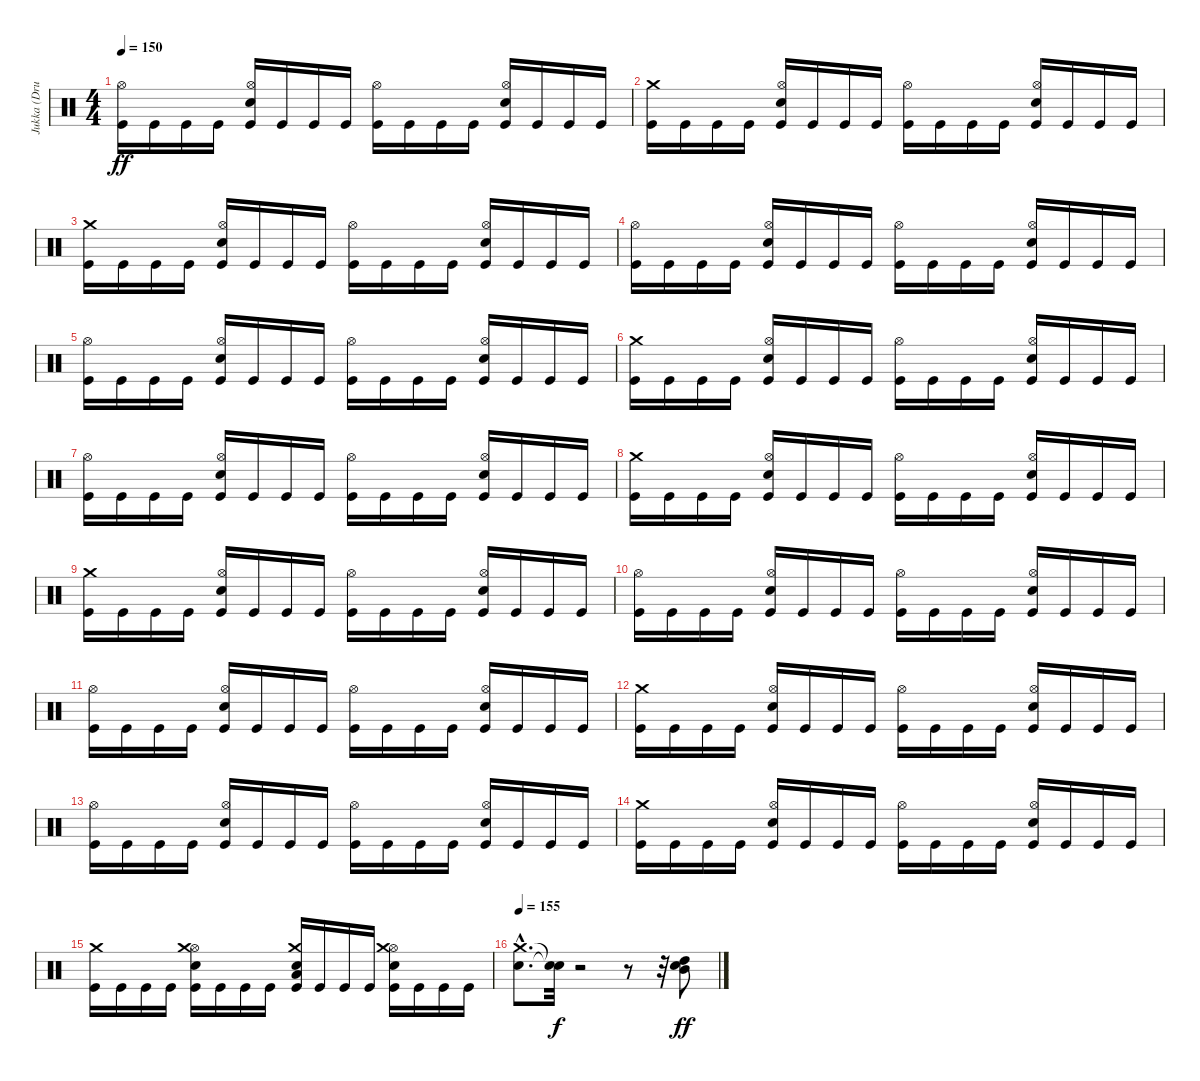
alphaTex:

\track ("Jukka (Drums)" "Jukka (Dru") {instrument percussion}
\staff {score}
\articulation defaults
\ts (4 4)
\tempo 150
\clef neutral
\ks c
("Kick (hit)" "Hi-Hat (open)").16{dy ff} "Kick (hit)".16 "Kick (hit)".16 "Kick (hit)".16 ("Kick (hit)" "Electric Snare (hit)" "Hi-Hat (open)").16 "Kick (hit)".16 "Kick (hit)".16 "Kick (hit)".16 ("Kick (hit)" "Hi-Hat (open)").16 "Kick (hit)".16 "Kick (hit)".16 "Kick (hit)".16 ("Kick (hit)" "Electric Snare (hit)" "Hi-Hat (open)").16 "Kick (hit)".16 "Kick (hit)".16 "Kick (hit)".16 |
("Kick (hit)" "Crash medium (hit)").16 "Kick (hit)".16 "Kick (hit)".16 "Kick (hit)".16 ("Kick (hit)" "Electric Snare (hit)" "Hi-Hat (open)").16 "Kick (hit)".16 "Kick (hit)".16 "Kick (hit)".16 ("Kick (hit)" "Hi-Hat (open)").16 "Kick (hit)".16 "Kick (hit)".16 "Kick (hit)".16 ("Kick (hit)" "Electric Snare (hit)" "Hi-Hat (open)").16 "Kick (hit)".16 "Kick (hit)".16 "Kick (hit)".16 |
("Kick (hit)" "Crash medium (hit)").16 "Kick (hit)".16 "Kick (hit)".16 "Kick (hit)".16 ("Kick (hit)" "Electric Snare (hit)" "Hi-Hat (open)").16 "Kick (hit)".16 "Kick (hit)".16 "Kick (hit)".16 ("Kick (hit)" "Hi-Hat (open)").16 "Kick (hit)".16 "Kick (hit)".16 "Kick (hit)".16 ("Kick (hit)" "Electric Snare (hit)" "Hi-Hat (open)").16 "Kick (hit)".16 "Kick (hit)".16 "Kick (hit)".16 |
("Kick (hit)" "Hi-Hat (open)").16 "Kick (hit)".16 "Kick (hit)".16 "Kick (hit)".16 ("Kick (hit)" "Electric Snare (hit)" "Hi-Hat (open)").16 "Kick (hit)".16 "Kick (hit)".16 "Kick (hit)".16 ("Kick (hit)" "Hi-Hat (open)").16 "Kick (hit)".16 "Kick (hit)".16 "Kick (hit)".16 ("Kick (hit)" "Electric Snare (hit)" "Hi-Hat (open)").16 "Kick (hit)".16 "Kick (hit)".16 "Kick (hit)".16 |
("Kick (hit)" "Hi-Hat (open)").16 "Kick (hit)".16 "Kick (hit)".16 "Kick (hit)".16 ("Kick (hit)" "Electric Snare (hit)" "Hi-Hat (open)").16 "Kick (hit)".16 "Kick (hit)".16 "Kick (hit)".16 ("Kick (hit)" "Hi-Hat (open)").16 "Kick (hit)".16 "Kick (hit)".16 "Kick (hit)".16 ("Kick (hit)" "Electric Snare (hit)" "Hi-Hat (open)").16 "Kick (hit)".16 "Kick (hit)".16 "Kick (hit)".16 |
("Kick (hit)" "Crash medium (hit)").16 "Kick (hit)".16 "Kick (hit)".16 "Kick (hit)".16 ("Kick (hit)" "Electric Snare (hit)" "Hi-Hat (open)").16 "Kick (hit)".16 "Kick (hit)".16 "Kick (hit)".16 ("Kick (hit)" "Hi-Hat (open)").16 "Kick (hit)".16 "Kick (hit)".16 "Kick (hit)".16 ("Kick (hit)" "Electric Snare (hit)" "Hi-Hat (open)").16 "Kick (hit)".16 "Kick (hit)".16 "Kick (hit)".16 |
("Kick (hit)" "Hi-Hat (open)").16 "Kick (hit)".16 "Kick (hit)".16 "Kick (hit)".16 ("Kick (hit)" "Electric Snare (hit)" "Hi-Hat (open)").16 "Kick (hit)".16 "Kick (hit)".16 "Kick (hit)".16 ("Kick (hit)" "Hi-Hat (open)").16 "Kick (hit)".16 "Kick (hit)".16 "Kick (hit)".16 ("Kick (hit)" "Electric Snare (hit)" "Hi-Hat (open)").16 "Kick (hit)".16 "Kick (hit)".16 "Kick (hit)".16 |
("Kick (hit)" "Crash medium (hit)").16 "Kick (hit)".16 "Kick (hit)".16 "Kick (hit)".16 ("Kick (hit)" "Electric Snare (hit)" "Hi-Hat (open)").16 "Kick (hit)".16 "Kick (hit)".16 "Kick (hit)".16 ("Kick (hit)" "Hi-Hat (open)").16 "Kick (hit)".16 "Kick (hit)".16 "Kick (hit)".16 ("Kick (hit)" "Electric Snare (hit)" "Hi-Hat (open)").16 "Kick (hit)".16 "Kick (hit)".16 "Kick (hit)".16 |
("Kick (hit)" "Crash medium (hit)").16 "Kick (hit)".16 "Kick (hit)".16 "Kick (hit)".16 ("Kick (hit)" "Electric Snare (hit)" "Hi-Hat (open)").16 "Kick (hit)".16 "Kick (hit)".16 "Kick (hit)".16 ("Kick (hit)" "Hi-Hat (open)").16 "Kick (hit)".16 "Kick (hit)".16 "Kick (hit)".16 ("Kick (hit)" "Electric Snare (hit)" "Hi-Hat (open)").16 "Kick (hit)".16 "Kick (hit)".16 "Kick (hit)".16 |
("Kick (hit)" "Hi-Hat (open)").16 "Kick (hit)".16 "Kick (hit)".16 "Kick (hit)".16 ("Kick (hit)" "Electric Snare (hit)" "Hi-Hat (open)").16 "Kick (hit)".16 "Kick (hit)".16 "Kick (hit)".16 ("Kick (hit)" "Hi-Hat (open)").16 "Kick (hit)".16 "Kick (hit)".16 "Kick (hit)".16 ("Kick (hit)" "Electric Snare (hit)" "Hi-Hat (open)").16 "Kick (hit)".16 "Kick (hit)".16 "Kick (hit)".16 |
("Kick (hit)" "Hi-Hat (open)").16 "Kick (hit)".16 "Kick (hit)".16 "Kick (hit)".16 ("Kick (hit)" "Electric Snare (hit)" "Hi-Hat (open)").16 "Kick (hit)".16 "Kick (hit)".16 "Kick (hit)".16 ("Kick (hit)" "Hi-Hat (open)").16 "Kick (hit)".16 "Kick (hit)".16 "Kick (hit)".16 ("Kick (hit)" "Electric Snare (hit)" "Hi-Hat (open)").16 "Kick (hit)".16 "Kick (hit)".16 "Kick (hit)".16 |
("Kick (hit)" "Crash medium (hit)").16 "Kick (hit)".16 "Kick (hit)".16 "Kick (hit)".16 ("Kick (hit)" "Electric Snare (hit)" "Hi-Hat (open)").16 "Kick (hit)".16 "Kick (hit)".16 "Kick (hit)".16 ("Kick (hit)" "Hi-Hat (open)").16 "Kick (hit)".16 "Kick (hit)".16 "Kick (hit)".16 ("Kick (hit)" "Electric Snare (hit)" "Hi-Hat (open)").16 "Kick (hit)".16 "Kick (hit)".16 "Kick (hit)".16 |
("Kick (hit)" "Hi-Hat (open)").16 "Kick (hit)".16 "Kick (hit)".16 "Kick (hit)".16 ("Kick (hit)" "Electric Snare (hit)" "Hi-Hat (open)").16 "Kick (hit)".16 "Kick (hit)".16 "Kick (hit)".16 ("Kick (hit)" "Hi-Hat (open)").16 "Kick (hit)".16 "Kick (hit)".16 "Kick (hit)".16 ("Kick (hit)" "Electric Snare (hit)" "Hi-Hat (open)").16 "Kick (hit)".16 "Kick (hit)".16 "Kick (hit)".16 |
("Kick (hit)" "Crash medium (hit)").16 "Kick (hit)".16 "Kick (hit)".16 "Kick (hit)".16 ("Kick (hit)" "Electric Snare (hit)" "Hi-Hat (open)").16 "Kick (hit)".16 "Kick (hit)".16 "Kick (hit)".16 ("Kick (hit)" "Hi-Hat (open)").16 "Kick (hit)".16 "Kick (hit)".16 "Kick (hit)".16 ("Kick (hit)" "Electric Snare (hit)" "Hi-Hat (open)").16 "Kick (hit)".16 "Kick (hit)".16 "Kick (hit)".16 |
("Kick (hit)" "Crash medium (hit)").16 "Kick (hit)".16 "Kick (hit)".16 "Kick (hit)".16 ("Kick (hit)" "Electric Snare (hit)" "Hi-Hat (open)" "Crash medium (hit)").16 "Kick (hit)".16 "Kick (hit)".16 "Kick (hit)".16 ("Kick (hit)" "Electric Snare (hit)" "Low Tom (hit)" "Crash medium (hit)").16 "Kick (hit)".16 "Kick (hit)".16 "Kick (hit)".16 ("Kick (hit)" "Electric Snare (hit)" "Hi-Hat (open)" "Crash medium (hit)").16 "Kick (hit)".16 "Kick (hit)".16 "Kick (hit)".16 |
\tempo 155
("Electric Snare (hit)"{hac} "Crash medium (hit)"{hac}).8{d} ("Snare (hit)"{t} "Snare (hit)"{t}).32{dy f} r.2 r.8 r.32 ("Electric Snare (hit)" "Mid Tom (hit)" "High Tom (hit)").8{dy ff}
